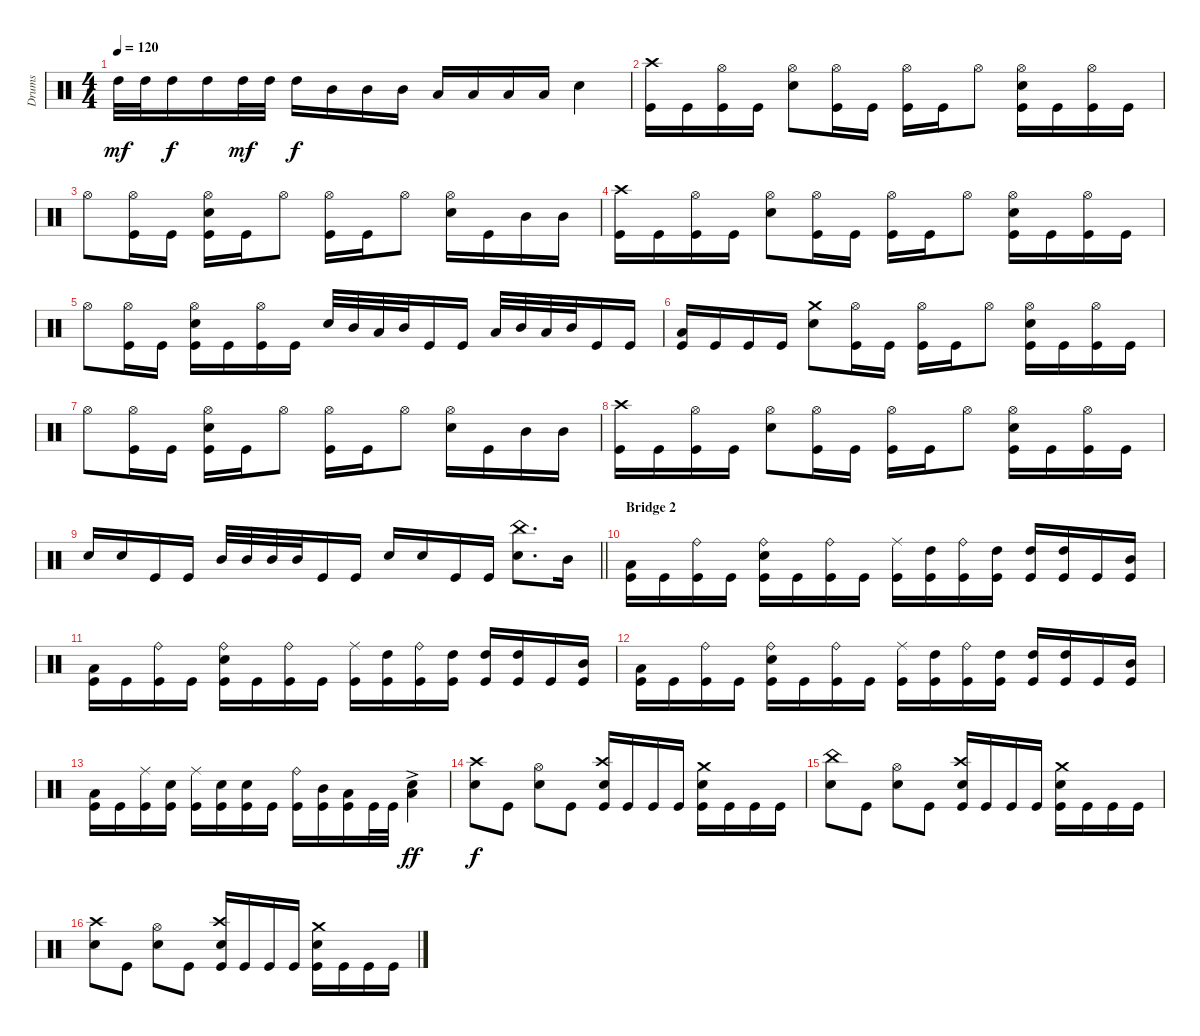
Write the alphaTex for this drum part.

\track ("Drums" "Drums") {instrument percussion}
\staff {score}
\articulation defaults
\ts (4 4)
\tempo 120
\clef neutral
\ks c "High Tom (hit)".32{dy mf} "High Tom (hit)".32 "High Tom (hit)".16{dy f} "High Tom (hit)".16 "High Tom (hit)".32{dy mf} "High Tom (hit)".32 "High Tom (hit)".16{dy f} "Mid Tom (hit)".16 "Mid Tom (hit)".16 "Mid Tom (hit)".16 "Low Tom (hit)".16 "Low Tom (hit)".16 "Low Floor Tom (hit)".16 "Low Floor Tom (hit)".16 "Electric Snare (hit)".4
|
("Crash high (hit)" "Kick (hit)").16 "Kick (hit)".16 ("Hi-Hat (open)" "Kick (hit)").16 "Kick (hit)".16 ("Hi-Hat (open)" "Electric Snare (hit)").8 ("Hi-Hat (open)" "Kick (hit)").16 "Kick (hit)".16 ("Hi-Hat (open)" "Kick (hit)").16 "Kick (hit)".16 "Hi-Hat (open)".8 ("Hi-Hat (open)" "Electric Snare (hit)" "Kick (hit)").16 "Kick (hit)".16 ("Hi-Hat (open)" "Kick (hit)").16 "Kick (hit)".16 |
"Hi-Hat (open)".8 ("Hi-Hat (open)" "Kick (hit)").16 "Kick (hit)".16 ("Hi-Hat (open)" "Electric Snare (hit)" "Kick (hit)").16 "Kick (hit)".16 "Hi-Hat (open)".8 ("Hi-Hat (open)" "Kick (hit)").16 "Kick (hit)".16 "Hi-Hat (open)".8 ("Hi-Hat (open)" "Electric Snare (hit)").16 "Kick (hit)".16 "Mid Tom (hit)".16 "Mid Tom (hit)".16 |
("Crash high (hit)" "Kick (hit)").16 "Kick (hit)".16 ("Hi-Hat (open)" "Kick (hit)").16 "Kick (hit)".16 ("Hi-Hat (open)" "Electric Snare (hit)").8 ("Hi-Hat (open)" "Kick (hit)").16 "Kick (hit)".16 ("Hi-Hat (open)" "Kick (hit)").16 "Kick (hit)".16 "Hi-Hat (open)".8 ("Hi-Hat (open)" "Electric Snare (hit)" "Kick (hit)").16 "Kick (hit)".16 ("Hi-Hat (open)" "Kick (hit)").16 "Kick (hit)".16 |
"Hi-Hat (open)".8 ("Hi-Hat (open)" "Kick (hit)").16 "Kick (hit)".16 ("Hi-Hat (open)" "Electric Snare (hit)" "Kick (hit)").16 "Kick (hit)".16 ("Hi-Hat (open)" "Kick (hit)").16 "Kick (hit)".16 "Electric Snare (hit)".32 "Mid Tom (hit)".32 "Low Tom (hit)".32 "Mid Tom (hit)".32 "Kick (hit)".16 "Kick (hit)".16 "Low Tom (hit)".32 "Mid Tom (hit)".32 "Low Floor Tom (hit)".32 "Mid Tom (hit)".32 "Kick (hit)".16 "Kick (hit)".16 |
("Low Tom (hit)" "Kick (hit)").16 "Kick (hit)".16 "Kick (hit)".16 "Kick (hit)".16 ("Crash medium (hit)" "Electric Snare (hit)").8 ("Hi-Hat (open)" "Kick (hit)").16 "Kick (hit)".16 ("Hi-Hat (open)" "Kick (hit)").16 "Kick (hit)".16 "Hi-Hat (open)".8 ("Hi-Hat (open)" "Electric Snare (hit)" "Kick (hit)").16 "Kick (hit)".16 ("Hi-Hat (open)" "Kick (hit)").16 "Kick (hit)".16 |
"Hi-Hat (open)".8 ("Hi-Hat (open)" "Kick (hit)").16 "Kick (hit)".16 ("Hi-Hat (open)" "Electric Snare (hit)" "Kick (hit)").16 "Kick (hit)".16 "Hi-Hat (open)".8 ("Hi-Hat (open)" "Kick (hit)").16 "Kick (hit)".16 "Hi-Hat (open)".8 ("Hi-Hat (open)" "Electric Snare (hit)").16 "Kick (hit)".16 "Mid Tom (hit)".16 "Mid Tom (hit)".16 |
("Crash high (hit)" "Kick (hit)").16 "Kick (hit)".16 ("Hi-Hat (open)" "Kick (hit)").16 "Kick (hit)".16 ("Hi-Hat (open)" "Electric Snare (hit)").8 ("Hi-Hat (open)" "Kick (hit)").16 "Kick (hit)".16 ("Hi-Hat (open)" "Kick (hit)").16 "Kick (hit)".16 "Hi-Hat (open)".8 ("Hi-Hat (open)" "Electric Snare (hit)" "Kick (hit)").16 "Kick (hit)".16 ("Hi-Hat (open)" "Kick (hit)").16 "Kick (hit)".16 |
\barLineRight lightlight "Electric Snare (hit)".16 "Electric Snare (hit)".16 "Kick (hit)".16 "Kick (hit)".16 "Mid Tom (hit)".32 "Mid Tom (hit)".32 "Mid Tom (hit)".32 "Mid Tom (hit)".32 "Kick (hit)".16 "Kick (hit)".16 "Electric Snare (hit)".16 "Electric Snare (hit)".16 "Kick (hit)".16 "Kick (hit)".16
("China (hit)" "Electric Snare (hit)").8{d} "Mid Tom (hit)".16 |
\section ("" "Bridge 2")
("Low Tom (hit)" "Kick (hit)").16 "Kick (hit)".16 ("Ride (bell)" "Kick (hit)").16 "Kick (hit)".16 ("Ride (bell)" "Electric Snare (hit)" "Kick (hit)").16 "Kick (hit)".16 ("Ride (bell)" "Kick (hit)").16 "Kick (hit)".16 ("Ride (middle)" "Kick (hit)").16 ("High Tom (hit)" "Kick (hit)").16 ("Ride (bell)" "Kick (hit)").16 ("High Tom (hit)" "Kick (hit)").16 ("High Tom (hit)" "Kick (hit)").16 ("High Tom (hit)" "Kick (hit)").16 "Kick (hit)".16 ("Mid Tom (hit)" "Kick (hit)").16 |
("Low Tom (hit)" "Kick (hit)").16 "Kick (hit)".16 ("Ride (bell)" "Kick (hit)").16 "Kick (hit)".16 ("Ride (bell)" "Electric Snare (hit)" "Kick (hit)").16 "Kick (hit)".16 ("Ride (bell)" "Kick (hit)").16 "Kick (hit)".16 ("Ride (middle)" "Kick (hit)").16 ("High Tom (hit)" "Kick (hit)").16 ("Ride (bell)" "Kick (hit)").16 ("High Tom (hit)" "Kick (hit)").16 ("High Tom (hit)" "Kick (hit)").16 ("High Tom (hit)" "Kick (hit)").16 "Kick (hit)".16 ("Mid Tom (hit)" "Kick (hit)").16 |
("Low Tom (hit)" "Kick (hit)").16 "Kick (hit)".16 ("Ride (bell)" "Kick (hit)").16 "Kick (hit)".16 ("Ride (bell)" "Electric Snare (hit)" "Kick (hit)").16 "Kick (hit)".16 ("Ride (bell)" "Kick (hit)").16 "Kick (hit)".16 ("Ride (middle)" "Kick (hit)").16 ("High Tom (hit)" "Kick (hit)").16 ("Ride (bell)" "Kick (hit)").16 ("High Tom (hit)" "Kick (hit)").16 ("High Tom (hit)" "Kick (hit)").16 ("High Tom (hit)" "Kick (hit)").16 "Kick (hit)".16 ("Mid Tom (hit)" "Kick (hit)").16 |
("Low Tom (hit)" "Kick (hit)").16 "Kick (hit)".16 ("Ride (middle)" "Kick (hit)").16 ("Electric Snare (hit)" "Kick (hit)").16 ("Ride (middle)" "Kick (hit)").16 ("Electric Snare (hit)" "Kick (hit)").16 ("Electric Snare (hit)" "Kick (hit)").16 "Kick (hit)".16 ("Ride (bell)" "Kick (hit)").16 ("Mid Tom (hit)" "Kick (hit)").16 ("Low Tom (hit)" "Kick (hit)").16 "Kick (hit)".32 "Kick (hit)".32 ("Electric Snare (hit)"{ac} "Low Tom (hit)").4{dy ff} |
("Crash high (hit)" "Electric Snare (hit)").8{dy f} "Kick (hit)".8 ("Hi-Hat (open)" "Electric Snare (hit)").8 "Kick (hit)".8 ("Crash high (hit)" "Electric Snare (hit)" "Kick (hit)").16 "Kick (hit)".16 "Kick (hit)".16 "Kick (hit)".16 ("Crash medium (hit)" "Electric Snare (hit)" "Kick (hit)").16 "Kick (hit)".16 "Kick (hit)".16 "Kick (hit)".16 |
("China (hit)" "Electric Snare (hit)").8 "Kick (hit)".8 ("Hi-Hat (open)" "Electric Snare (hit)").8 "Kick (hit)".8 ("Crash high (hit)" "Electric Snare (hit)" "Kick (hit)").16 "Kick (hit)".16 "Kick (hit)".16 "Kick (hit)".16 ("Crash medium (hit)" "Electric Snare (hit)" "Kick (hit)").16 "Kick (hit)".16 "Kick (hit)".16 "Kick (hit)".16 |
("Crash high (hit)" "Electric Snare (hit)").8 "Kick (hit)".8 ("Hi-Hat (open)" "Electric Snare (hit)").8 "Kick (hit)".8 ("Crash high (hit)" "Electric Snare (hit)" "Kick (hit)").16 "Kick (hit)".16 "Kick (hit)".16 "Kick (hit)".16 ("Crash medium (hit)" "Electric Snare (hit)" "Kick (hit)").16 "Kick (hit)".16 "Kick (hit)".16 "Kick (hit)".16
